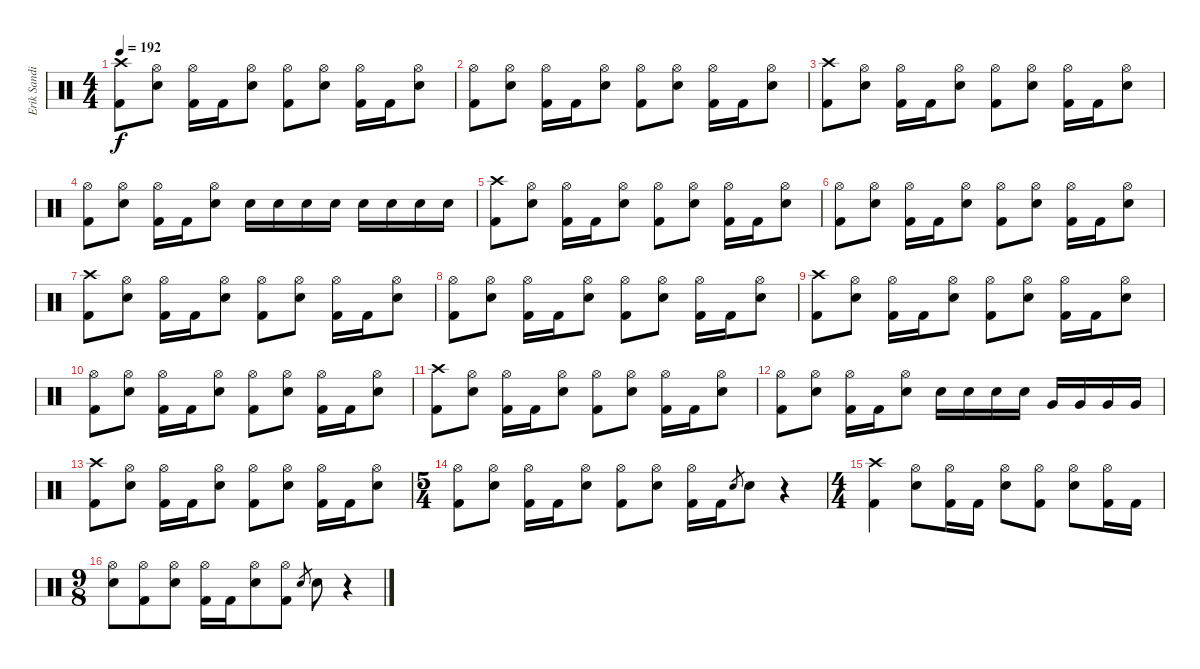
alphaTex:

\track ("Erik Sandin - Drums" "Erik Sandi") {instrument percussion}
\staff {score}
\articulation defaults
\ts (4 4)
\tempo 192
\clef neutral
\ks c
("Crash high (hit)" "Kick (hit) 2").8{dy f} ("Hi-Hat (open)" "Electric Snare (hit)").8 ("Hi-Hat (open)" "Kick (hit) 2").16 "Kick (hit) 2".16 ("Hi-Hat (open)" "Electric Snare (hit)").8 ("Hi-Hat (open)" "Kick (hit) 2").8 ("Hi-Hat (open)" "Electric Snare (hit)").8 ("Hi-Hat (open)" "Kick (hit) 2").16 "Kick (hit) 2".16 ("Hi-Hat (open)" "Electric Snare (hit)").8 |
("Hi-Hat (open)" "Kick (hit) 2").8 ("Hi-Hat (open)" "Electric Snare (hit)").8 ("Hi-Hat (open)" "Kick (hit) 2").16 "Kick (hit) 2".16 ("Hi-Hat (open)" "Electric Snare (hit)").8 ("Hi-Hat (open)" "Kick (hit) 2").8 ("Hi-Hat (open)" "Electric Snare (hit)").8 ("Hi-Hat (open)" "Kick (hit) 2").16 "Kick (hit) 2".16 ("Hi-Hat (open)" "Electric Snare (hit)").8 |
("Crash high (hit)" "Kick (hit) 2").8 ("Hi-Hat (open)" "Electric Snare (hit)").8 ("Hi-Hat (open)" "Kick (hit) 2").16 "Kick (hit) 2".16 ("Hi-Hat (open)" "Electric Snare (hit)").8 ("Hi-Hat (open)" "Kick (hit) 2").8 ("Hi-Hat (open)" "Electric Snare (hit)").8 ("Hi-Hat (open)" "Kick (hit) 2").16 "Kick (hit) 2".16 ("Hi-Hat (open)" "Electric Snare (hit)").8 |
("Hi-Hat (open)" "Kick (hit) 2").8 ("Hi-Hat (open)" "Electric Snare (hit)").8 ("Hi-Hat (open)" "Kick (hit) 2").16 "Kick (hit) 2".16 ("Hi-Hat (open)" "Electric Snare (hit)").8 "Electric Snare (hit)".16 "Electric Snare (hit)".16 "Electric Snare (hit)".16 "Electric Snare (hit)".16 "Electric Snare (hit)".16 "Electric Snare (hit)".16 "Electric Snare (hit)".16 "Electric Snare (hit)".16 |
("Crash high (hit)" "Kick (hit) 2").8 ("Hi-Hat (open)" "Electric Snare (hit)").8 ("Hi-Hat (open)" "Kick (hit) 2").16 "Kick (hit) 2".16 ("Hi-Hat (open)" "Electric Snare (hit)").8 ("Hi-Hat (open)" "Kick (hit) 2").8 ("Hi-Hat (open)" "Electric Snare (hit)").8 ("Hi-Hat (open)" "Kick (hit) 2").16 "Kick (hit) 2".16 ("Hi-Hat (open)" "Electric Snare (hit)").8 |
("Hi-Hat (open)" "Kick (hit) 2").8 ("Hi-Hat (open)" "Electric Snare (hit)").8 ("Hi-Hat (open)" "Kick (hit) 2").16 "Kick (hit) 2".16 ("Hi-Hat (open)" "Electric Snare (hit)").8 ("Hi-Hat (open)" "Kick (hit) 2").8 ("Hi-Hat (open)" "Electric Snare (hit)").8 ("Hi-Hat (open)" "Kick (hit) 2").16 "Kick (hit) 2".16 ("Hi-Hat (open)" "Electric Snare (hit)").8 |
("Crash high (hit)" "Kick (hit) 2").8 ("Hi-Hat (open)" "Electric Snare (hit)").8 ("Hi-Hat (open)" "Kick (hit) 2").16 "Kick (hit) 2".16 ("Hi-Hat (open)" "Electric Snare (hit)").8 ("Hi-Hat (open)" "Kick (hit) 2").8 ("Hi-Hat (open)" "Electric Snare (hit)").8 ("Hi-Hat (open)" "Kick (hit) 2").16 "Kick (hit) 2".16 ("Hi-Hat (open)" "Electric Snare (hit)").8 |
("Hi-Hat (open)" "Kick (hit) 2").8 ("Hi-Hat (open)" "Electric Snare (hit)").8 ("Hi-Hat (open)" "Kick (hit) 2").16 "Kick (hit) 2".16 ("Hi-Hat (open)" "Electric Snare (hit)").8 ("Hi-Hat (open)" "Kick (hit) 2").8 ("Hi-Hat (open)" "Electric Snare (hit)").8 ("Hi-Hat (open)" "Kick (hit) 2").16 "Kick (hit) 2".16 ("Hi-Hat (open)" "Electric Snare (hit)").8 |
("Crash high (hit)" "Kick (hit) 2").8 ("Hi-Hat (open)" "Electric Snare (hit)").8 ("Hi-Hat (open)" "Kick (hit) 2").16 "Kick (hit) 2".16 ("Hi-Hat (open)" "Electric Snare (hit)").8 ("Hi-Hat (open)" "Kick (hit) 2").8 ("Hi-Hat (open)" "Electric Snare (hit)").8 ("Hi-Hat (open)" "Kick (hit) 2").16 "Kick (hit) 2".16 ("Hi-Hat (open)" "Electric Snare (hit)").8 |
("Hi-Hat (open)" "Kick (hit) 2").8 ("Hi-Hat (open)" "Electric Snare (hit)").8 ("Hi-Hat (open)" "Kick (hit) 2").16 "Kick (hit) 2".16 ("Hi-Hat (open)" "Electric Snare (hit)").8 ("Hi-Hat (open)" "Kick (hit) 2").8 ("Hi-Hat (open)" "Electric Snare (hit)").8 ("Hi-Hat (open)" "Kick (hit) 2").16 "Kick (hit) 2".16 ("Hi-Hat (open)" "Electric Snare (hit)").8 |
("Crash high (hit)" "Kick (hit) 2").8 ("Hi-Hat (open)" "Electric Snare (hit)").8 ("Hi-Hat (open)" "Kick (hit) 2").16 "Kick (hit) 2".16 ("Hi-Hat (open)" "Electric Snare (hit)").8 ("Hi-Hat (open)" "Kick (hit) 2").8 ("Hi-Hat (open)" "Electric Snare (hit)").8 ("Hi-Hat (open)" "Kick (hit) 2").16 "Kick (hit) 2".16 ("Hi-Hat (open)" "Electric Snare (hit)").8 |
("Hi-Hat (open)" "Kick (hit) 2").8 ("Hi-Hat (open)" "Electric Snare (hit)").8 ("Hi-Hat (open)" "Kick (hit) 2").16 "Kick (hit) 2".16 ("Hi-Hat (open)" "Electric Snare (hit)").8 "Electric Snare (hit)".16 "Electric Snare (hit)".16 "Electric Snare (hit)".16 "Electric Snare (hit)".16 "Very Low Tom (hit)".16 "Very Low Tom (hit)".16 "Very Low Tom (hit)".16 "Very Low Tom (hit)".16 |
("Crash high (hit)" "Kick (hit) 2").8 ("Hi-Hat (open)" "Electric Snare (hit)").8 ("Hi-Hat (open)" "Kick (hit) 2").16 "Kick (hit) 2".16 ("Hi-Hat (open)" "Electric Snare (hit)").8 ("Hi-Hat (open)" "Kick (hit) 2").8 ("Hi-Hat (open)" "Electric Snare (hit)").8 ("Hi-Hat (open)" "Kick (hit) 2").16 "Kick (hit) 2".16 ("Hi-Hat (open)" "Electric Snare (hit)").8 |
\ts (5 4)
("Hi-Hat (open)" "Kick (hit) 2").8 ("Hi-Hat (open)" "Electric Snare (hit)").8 ("Hi-Hat (open)" "Kick (hit) 2").16 "Kick (hit) 2".16 ("Hi-Hat (open)" "Electric Snare (hit)").8 ("Hi-Hat (open)" "Kick (hit) 2").8 ("Hi-Hat (open)" "Electric Snare (hit)").8 ("Hi-Hat (open)" "Kick (hit) 2").16 "Kick (hit) 2".16 "Electric Snare (hit)".8{gr} "Electric Snare (hit)".8 r.4 |
\ts (4 4)
("Crash high (hit)" "Kick (hit) 2").4 ("Hi-Hat (open)" "Electric Snare (hit)").8 ("Hi-Hat (open)" "Kick (hit) 2").16 "Kick (hit) 2".16 ("Hi-Hat (open)" "Electric Snare (hit)").8 ("Hi-Hat (open)" "Kick (hit) 2").8 ("Hi-Hat (open)" "Electric Snare (hit)").8 ("Hi-Hat (open)" "Kick (hit) 2").16 "Kick (hit) 2".16 |
\ts (9 8)
("Hi-Hat (open)" "Electric Snare (hit)").8 ("Hi-Hat (open)" "Kick (hit) 2").8 ("Hi-Hat (open)" "Electric Snare (hit)").8 ("Hi-Hat (open)" "Kick (hit) 2").16 "Kick (hit) 2".16 ("Hi-Hat (open)" "Electric Snare (hit)").8 ("Hi-Hat (open)" "Kick (hit) 2").8 "Electric Snare (hit)".8{gr} "Electric Snare (hit)".8 r.4
